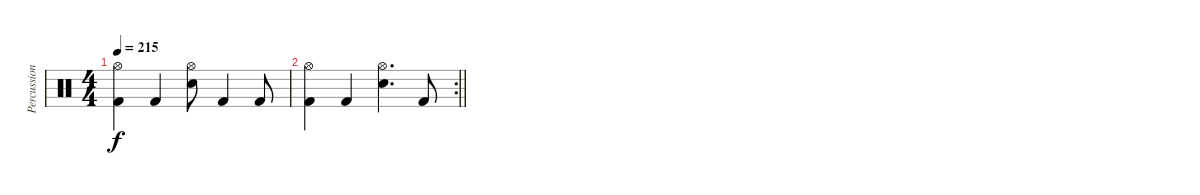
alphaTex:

\track ("Percussions" "Percussion") {instrument percussion}
\staff {score}
\articulation defaults
\ts (4 4)
\tempo 215
\clef neutral
\ks c
("Hi-Hat (open)" "Kick (hit) 2").4{dy f} "Kick (hit) 2".4 ("Hi-Hat (open)" "Electric Snare (hit)").8 "Kick (hit) 2".4 "Kick (hit) 2".8 |
\rc 2
\barLineRight lightlight
("Hi-Hat (open)" "Kick (hit) 2").4 "Kick (hit) 2".4 ("Hi-Hat (open)" "Electric Snare (hit)").4{d} "Kick (hit) 2".8
